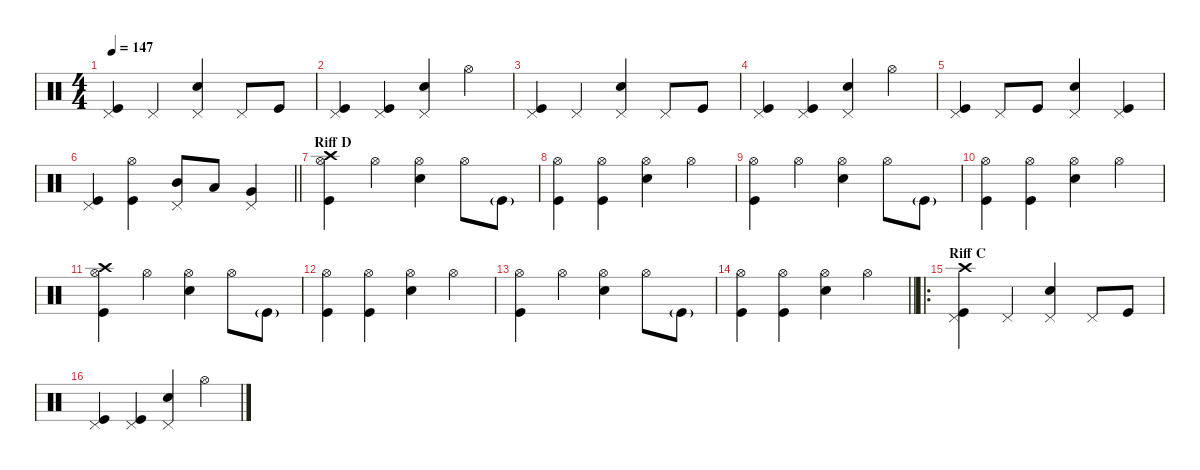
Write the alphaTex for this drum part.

\defaultSystemsLayout 4
\hideDynamics
\bracketExtendMode nobrackets
\singleTrackTrackNamePolicy hidden
\multiTrackTrackNamePolicy hidden
\firstSystemTrackNameMode fullname
\otherSystemsTrackNameOrientation horizontal
\track ("Percussion" "drm.") {instrument percussion}
\staff {score}
\articulation defaults
\ts (4 4)
\tempo 147
\clef neutral
\ks c
("Kick (hit)" "Pedal Hi-Hat (hit)").4{dy f} "Pedal Hi-Hat (hit)".4 ("Snare (hit) 2" "Pedal Hi-Hat (hit)").4 "Pedal Hi-Hat (hit)".8 "Kick (hit)".8 |
("Kick (hit)" "Pedal Hi-Hat (hit)").4 ("Kick (hit)" "Pedal Hi-Hat (hit)").4 ("Snare (hit) 2" "Pedal Hi-Hat (hit)").4 "Hi-Hat (open)".4 |
("Kick (hit)" "Pedal Hi-Hat (hit)").4 "Pedal Hi-Hat (hit)".4 ("Snare (hit) 2" "Pedal Hi-Hat (hit)").4 "Pedal Hi-Hat (hit)".8 "Kick (hit)".8 |
("Kick (hit)" "Pedal Hi-Hat (hit)").4 ("Kick (hit)" "Pedal Hi-Hat (hit)").4 ("Snare (hit) 2" "Pedal Hi-Hat (hit)").4 "Hi-Hat (open)".4 |
("Kick (hit)" "Pedal Hi-Hat (hit)").4 "Pedal Hi-Hat (hit)".8 "Kick (hit)".8 ("Snare (hit) 2" "Pedal Hi-Hat (hit)").4 ("Kick (hit)" "Pedal Hi-Hat (hit)").4 |
\barLineRight lightlight
("Kick (hit)" "Pedal Hi-Hat (hit)").4 ("Kick (hit)" "Hi-Hat (open)").4 ("Mid Tom (hit)" "Pedal Hi-Hat (hit)").8 "Low Tom (hit)".8{dy mf} ("Very Low Tom (hit)" "Pedal Hi-Hat (hit)").4{dy f} |
\section ("" "Riff D")
("Crash high (hit)" "Kick (hit)" "Hi-Hat (open)").4 "Hi-Hat (open)".4{dy mf} ("Snare (hit) 2" "Hi-Hat (open)").4{dy f} "Hi-Hat (open)".8{dy mf} "Kick (hit)"{g}.8{dy f} |
("Kick (hit)" "Hi-Hat (open)").4 ("Kick (hit)" "Hi-Hat (open)").4 ("Snare (hit) 2" "Hi-Hat (open)").4 "Hi-Hat (open)".4{dy mf} |
("Kick (hit)" "Hi-Hat (open)").4{dy f} "Hi-Hat (open)".4{dy mf} ("Snare (hit) 2" "Hi-Hat (open)").4{dy f} "Hi-Hat (open)".8{dy mf} "Kick (hit)"{g}.8{dy f} |
("Kick (hit)" "Hi-Hat (open)").4 ("Kick (hit)" "Hi-Hat (open)").4 ("Snare (hit) 2" "Hi-Hat (open)").4 "Hi-Hat (open)".4{dy mf} |
("Crash high (hit)" "Kick (hit)" "Hi-Hat (open)").4{dy f} "Hi-Hat (open)".4{dy mf} ("Snare (hit) 2" "Hi-Hat (open)").4{dy f} "Hi-Hat (open)".8{dy mf} "Kick (hit)"{g}.8{dy f} |
("Kick (hit)" "Hi-Hat (open)").4 ("Kick (hit)" "Hi-Hat (open)").4 ("Snare (hit) 2" "Hi-Hat (open)").4 "Hi-Hat (open)".4{dy mf} |
("Kick (hit)" "Hi-Hat (open)").4{dy f} "Hi-Hat (open)".4{dy mf} ("Snare (hit) 2" "Hi-Hat (open)").4{dy f} "Hi-Hat (open)".8{dy mf} "Kick (hit)"{g}.8{dy f} |
\barLineRight lightlight
("Kick (hit)" "Hi-Hat (open)").4 ("Kick (hit)" "Hi-Hat (open)").4 ("Snare (hit) 2" "Hi-Hat (open)").4 "Hi-Hat (open)".4{dy mf} |
\ro
\section ("" "Riff C")
("Crash high (hit)" "Kick (hit)" "Pedal Hi-Hat (hit)").4{dy f} "Pedal Hi-Hat (hit)".4 ("Snare (hit) 2" "Pedal Hi-Hat (hit)").4 "Pedal Hi-Hat (hit)".8 "Kick (hit)".8 |
("Kick (hit)" "Pedal Hi-Hat (hit)").4 ("Kick (hit)" "Pedal Hi-Hat (hit)").4 ("Snare (hit) 2" "Pedal Hi-Hat (hit)").4 "Hi-Hat (open)".4
